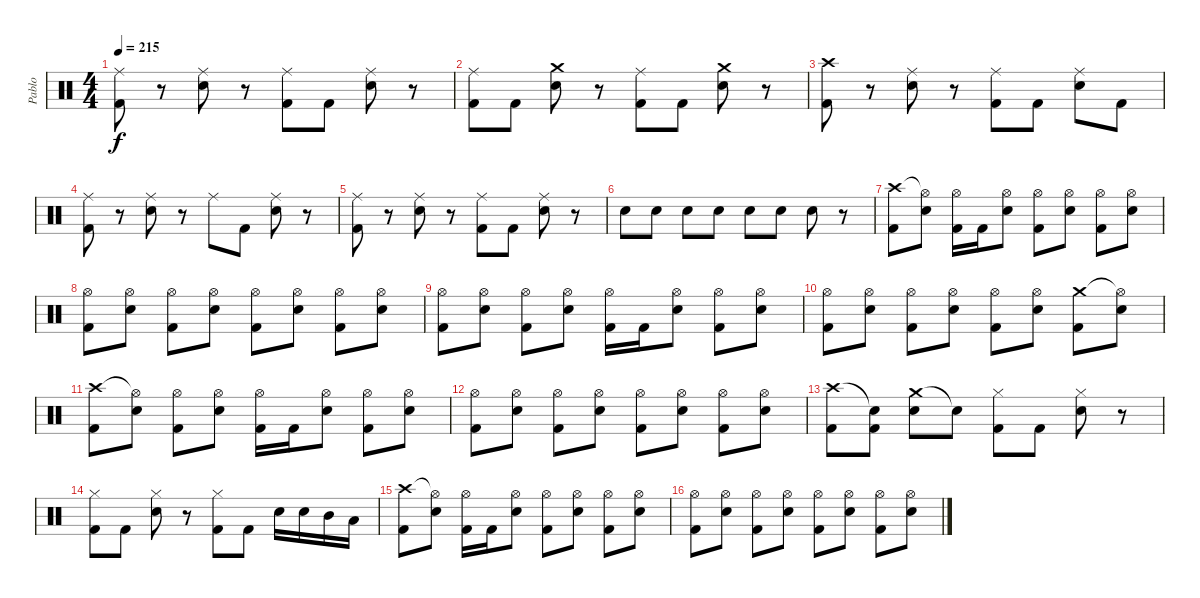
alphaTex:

\track ("Pablo" "Pablo") {instrument percussion}
\staff {score}
\articulation defaults
\ts (4 4)
\tempo 215
\clef neutral
\ks c
("Ride (middle)" "Kick (hit) 2").8{dy f} r.8 ("Ride (middle)" "Electric Snare (hit)").8 r.8 ("Ride (middle)" "Kick (hit) 2").8 "Kick (hit) 2".8 ("Ride (middle)" "Electric Snare (hit)").8 r.8 |
("Ride (middle)" "Kick (hit) 2").8 "Kick (hit) 2".8 ("Crash medium (hit)" "Electric Snare (hit)").8 r.8 ("Ride (middle)" "Kick (hit) 2").8 "Kick (hit) 2".8 ("Crash medium (hit)" "Electric Snare (hit)").8 r.8 |
("Crash high (hit)" "Kick (hit) 2").8 r.8 ("Ride (middle)" "Electric Snare (hit)").8 r.8 ("Ride (middle)" "Kick (hit) 2").8 "Kick (hit) 2".8 ("Ride (middle)" "Electric Snare (hit)").8 "Kick (hit) 2".8 |
("Ride (middle)" "Kick (hit) 2").8 r.8 ("Ride (middle)" "Electric Snare (hit)").8 r.8 "Ride (middle)".8 "Kick (hit) 2".8 ("Ride (middle)" "Electric Snare (hit)").8 r.8 |
("Ride (middle)" "Kick (hit) 2").8 r.8 ("Ride (middle)" "Electric Snare (hit)").8 r.8 ("Ride (middle)" "Kick (hit) 2").8 "Kick (hit) 2".8 ("Ride (middle)" "Electric Snare (hit)").8 r.8 |
"Electric Snare (hit)".8 "Electric Snare (hit)".8 "Electric Snare (hit)".8 "Electric Snare (hit)".8 "Electric Snare (hit)".8 "Electric Snare (hit)".8 "Electric Snare (hit)".8 r.8 |
("Crash high (hit)" "Kick (hit) 2").8 ("Hi-Hat (open)"{t} "Electric Snare (hit)").8 ("Hi-Hat (open)" "Kick (hit) 2").16 "Kick (hit) 2".16 ("Hi-Hat (open)" "Electric Snare (hit)").8 ("Hi-Hat (open)" "Kick (hit) 2").8 ("Hi-Hat (open)" "Electric Snare (hit)").8 ("Hi-Hat (open)" "Kick (hit) 2").8 ("Hi-Hat (open)" "Electric Snare (hit)").8 |
("Hi-Hat (open)" "Kick (hit) 2").8 ("Hi-Hat (open)" "Electric Snare (hit)").8 ("Hi-Hat (open)" "Kick (hit) 2").8 ("Hi-Hat (open)" "Electric Snare (hit)").8 ("Hi-Hat (open)" "Kick (hit) 2").8 ("Hi-Hat (open)" "Electric Snare (hit)").8 ("Hi-Hat (open)" "Kick (hit) 2").8 ("Hi-Hat (open)" "Electric Snare (hit)").8 |
("Hi-Hat (open)" "Kick (hit) 2").8 ("Hi-Hat (open)" "Electric Snare (hit)").8 ("Hi-Hat (open)" "Kick (hit) 2").8 ("Hi-Hat (open)" "Electric Snare (hit)").8 ("Hi-Hat (open)" "Kick (hit) 2").16 "Kick (hit) 2".16 ("Hi-Hat (open)" "Electric Snare (hit)").8 ("Hi-Hat (open)" "Kick (hit) 2").8 ("Hi-Hat (open)" "Electric Snare (hit)").8 |
("Hi-Hat (open)" "Kick (hit) 2").8 ("Hi-Hat (open)" "Electric Snare (hit)").8 ("Hi-Hat (open)" "Kick (hit) 2").8 ("Hi-Hat (open)" "Electric Snare (hit)").8 ("Hi-Hat (open)" "Kick (hit) 2").8 ("Hi-Hat (open)" "Electric Snare (hit)").8 ("Crash medium (hit)" "Kick (hit) 2").8 ("Hi-Hat (open)"{t} "Electric Snare (hit)").8 |
("Crash high (hit)" "Kick (hit) 2").8 ("Hi-Hat (open)"{t} "Electric Snare (hit)").8 ("Hi-Hat (open)" "Kick (hit) 2").8 ("Hi-Hat (open)" "Electric Snare (hit)").8 ("Hi-Hat (open)" "Kick (hit) 2").16 "Kick (hit) 2".16 ("Hi-Hat (open)" "Electric Snare (hit)").8 ("Hi-Hat (open)" "Kick (hit) 2").8 ("Hi-Hat (open)" "Electric Snare (hit)").8 |
("Hi-Hat (open)" "Kick (hit) 2").8 ("Hi-Hat (open)" "Electric Snare (hit)").8 ("Hi-Hat (open)" "Kick (hit) 2").8 ("Hi-Hat (open)" "Electric Snare (hit)").8 ("Hi-Hat (open)" "Kick (hit) 2").8 ("Hi-Hat (open)" "Electric Snare (hit)").8 ("Hi-Hat (open)" "Kick (hit) 2").8 ("Hi-Hat (open)" "Electric Snare (hit)").8 |
("Crash high (hit)" "Kick (hit) 2").8 ("Snare (hit)"{t} "Kick (hit) 2").8 ("Crash medium (hit)" "Electric Snare (hit)").8 "Snare (hit)"{t}.8 ("Hi-Hat (closed)" "Kick (hit) 2").8 "Kick (hit) 2".8 ("Hi-Hat (closed)" "Electric Snare (hit)").8 r.8 |
("Hi-Hat (closed)" "Kick (hit) 2").8 "Kick (hit) 2".8 ("Hi-Hat (closed)" "Electric Snare (hit)").8 r.8 ("Hi-Hat (closed)" "Kick (hit) 2").8 "Kick (hit) 2".8 "Electric Snare (hit)".16 "Electric Snare (hit)".16 "Mid Tom (hit)".16 "Low Tom (hit)".16 |
("Crash high (hit)" "Kick (hit) 2").8 ("Hi-Hat (open)"{t} "Electric Snare (hit)").8 ("Hi-Hat (open)" "Kick (hit) 2").16 "Kick (hit) 2".16 ("Hi-Hat (open)" "Electric Snare (hit)").8 ("Hi-Hat (open)" "Kick (hit) 2").8 ("Hi-Hat (open)" "Electric Snare (hit)").8 ("Hi-Hat (open)" "Kick (hit) 2").8 ("Hi-Hat (open)" "Electric Snare (hit)").8 |
("Hi-Hat (open)" "Kick (hit) 2").8 ("Hi-Hat (open)" "Electric Snare (hit)").8 ("Hi-Hat (open)" "Kick (hit) 2").8 ("Hi-Hat (open)" "Electric Snare (hit)").8 ("Hi-Hat (open)" "Kick (hit) 2").8 ("Hi-Hat (open)" "Electric Snare (hit)").8 ("Hi-Hat (open)" "Kick (hit) 2").8 ("Hi-Hat (open)" "Electric Snare (hit)").8
